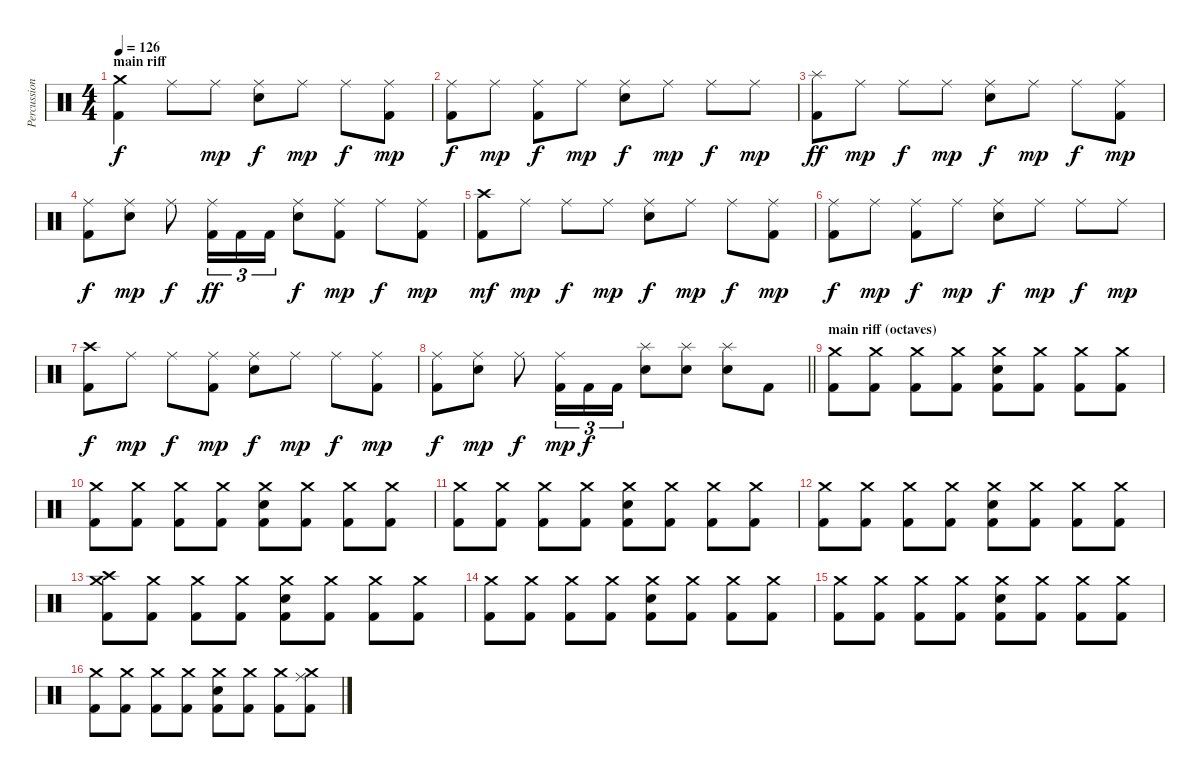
\track ("Percussion" "Percussion") {instrument percussion}
\staff {score}
\articulation defaults
\ts (4 4)
\section ("" "main riff")
\tempo 126
\clef neutral
\ks c
("Crash medium (hit)" "Kick (hit) 2").4{dy f} "Ride (middle)".8 "Ride (middle)".8{dy mp} ("Ride (middle)" "Electric Snare (hit)").8{dy f} "Ride (middle)".8{dy mp} "Ride (middle)".8{dy f} ("Ride (middle)" "Kick (hit) 2").8{dy mp} |
("Ride (middle)" "Kick (hit) 2").8{dy f} "Ride (middle)".8{dy mp} ("Ride (middle)" "Kick (hit) 2").8{dy f} "Ride (middle)".8{dy mp} ("Ride (middle)" "Electric Snare (hit)").8{dy f} "Ride (middle)".8{dy mp} "Ride (middle)".8{dy f} "Ride (middle)".8{dy mp} |
("Splash (hit)" "Kick (hit) 2").8{dy ff} "Ride (middle)".8{dy mp} "Ride (middle)".8{dy f} "Ride (middle)".8{dy mp} ("Ride (middle)" "Electric Snare (hit)").8{dy f} "Ride (middle)".8{dy mp} "Ride (middle)".8{dy f} ("Ride (middle)" "Kick (hit) 2").8{dy mp} |
("Ride (middle)" "Kick (hit) 2").8{dy f} ("Ride (middle)" "Electric Snare (hit)").8{dy mp} "Ride (middle)".8{dy f} ("Ride (middle)" "Kick (hit) 2").16{tu (3 2) dy ff} "Kick (hit) 2".16{tu (3 2)} "Kick (hit) 2".16{tu (3 2)} ("Ride (middle)" "Electric Snare (hit)").8{dy f} ("Ride (middle)" "Kick (hit) 2").8{dy mp} "Ride (middle)".8{dy f} ("Ride (middle)" "Kick (hit) 2").8{dy mp} |
("Crash high (hit)" "Kick (hit) 2").8{dy mf} "Ride (middle)".8{dy mp} "Ride (middle)".8{dy f} "Ride (middle)".8{dy mp} ("Ride (middle)" "Electric Snare (hit)").8{dy f} "Ride (middle)".8{dy mp} "Ride (middle)".8{dy f} ("Ride (middle)" "Kick (hit) 2").8{dy mp} |
("Ride (middle)" "Kick (hit) 2").8{dy f} "Ride (middle)".8{dy mp} ("Ride (middle)" "Kick (hit) 2").8{dy f} "Ride (middle)".8{dy mp} ("Ride (middle)" "Electric Snare (hit)").8{dy f} "Ride (middle)".8{dy mp} "Ride (middle)".8{dy f} "Ride (middle)".8{dy mp} |
("Crash high (hit)" "Kick (hit) 2").8{dy f} "Ride (middle)".8{dy mp} "Ride (middle)".8{dy f} ("Ride (middle)" "Kick (hit) 2").8{dy mp} ("Ride (middle)" "Electric Snare (hit)").8{dy f} "Ride (middle)".8{dy mp} "Ride (middle)".8{dy f} ("Ride (middle)" "Kick (hit) 2").8{dy mp} |
\barLineRight lightlight
("Ride (middle)" "Kick (hit) 2").8{dy f} ("Ride (middle)" "Electric Snare (hit)").8{dy mp} "Ride (middle)".8{dy f} ("Ride (middle)" "Kick (hit) 2").16{tu (3 2) dy mp} "Kick (hit) 2".16{tu (3 2) dy f} "Kick (hit) 2".16{tu (3 2)} ("Splash (hit)" "Electric Snare (hit)").8 ("Splash (hit)" "Electric Snare (hit)").8 ("Splash (hit)" "Electric Snare (hit)").8 "Kick (hit) 2".8 |
\section ("" "main riff (octaves)")
("Crash medium (hit)" "Kick (hit) 2").8 ("Crash medium (hit)" "Kick (hit) 2").8 ("Crash medium (hit)" "Kick (hit) 2").8 ("Crash medium (hit)" "Kick (hit) 2").8 ("Crash medium (hit)" "Electric Snare (hit)" "Kick (hit) 2").8 ("Crash medium (hit)" "Kick (hit) 2").8 ("Crash medium (hit)" "Kick (hit) 2").8 ("Crash medium (hit)" "Kick (hit) 2").8 |
("Crash medium (hit)" "Kick (hit) 2").8 ("Crash medium (hit)" "Kick (hit) 2").8 ("Crash medium (hit)" "Kick (hit) 2").8 ("Crash medium (hit)" "Kick (hit) 2").8 ("Crash medium (hit)" "Electric Snare (hit)" "Kick (hit) 2").8 ("Crash medium (hit)" "Kick (hit) 2").8 ("Crash medium (hit)" "Kick (hit) 2").8 ("Crash medium (hit)" "Kick (hit) 2").8 |
("Crash medium (hit)" "Kick (hit) 2").8 ("Crash medium (hit)" "Kick (hit) 2").8 ("Crash medium (hit)" "Kick (hit) 2").8 ("Crash medium (hit)" "Kick (hit) 2").8 ("Crash medium (hit)" "Electric Snare (hit)" "Kick (hit) 2").8 ("Crash medium (hit)" "Kick (hit) 2").8 ("Crash medium (hit)" "Kick (hit) 2").8 ("Crash medium (hit)" "Kick (hit) 2").8 |
("Crash medium (hit)" "Kick (hit) 2").8 ("Crash medium (hit)" "Kick (hit) 2").8 ("Crash medium (hit)" "Kick (hit) 2").8 ("Crash medium (hit)" "Kick (hit) 2").8 ("Crash medium (hit)" "Electric Snare (hit)" "Kick (hit) 2").8 ("Crash medium (hit)" "Kick (hit) 2").8 ("Crash medium (hit)" "Kick (hit) 2").8 ("Crash medium (hit)" "Kick (hit) 2").8 |
("Crash medium (hit)" "Crash high (hit)" "Kick (hit) 2").8 ("Crash medium (hit)" "Kick (hit) 2").8 ("Crash medium (hit)" "Kick (hit) 2").8 ("Crash medium (hit)" "Kick (hit) 2").8 ("Crash medium (hit)" "Electric Snare (hit)" "Kick (hit) 2").8 ("Crash medium (hit)" "Kick (hit) 2").8 ("Crash medium (hit)" "Kick (hit) 2").8 ("Crash medium (hit)" "Kick (hit) 2").8 |
("Crash medium (hit)" "Kick (hit) 2").8 ("Crash medium (hit)" "Kick (hit) 2").8 ("Crash medium (hit)" "Kick (hit) 2").8 ("Crash medium (hit)" "Kick (hit) 2").8 ("Crash medium (hit)" "Electric Snare (hit)" "Kick (hit) 2").8 ("Crash medium (hit)" "Kick (hit) 2").8 ("Crash medium (hit)" "Kick (hit) 2").8 ("Crash medium (hit)" "Kick (hit) 2").8 |
("Crash medium (hit)" "Kick (hit) 2").8 ("Crash medium (hit)" "Kick (hit) 2").8 ("Crash medium (hit)" "Kick (hit) 2").8 ("Crash medium (hit)" "Kick (hit) 2").8 ("Crash medium (hit)" "Electric Snare (hit)" "Kick (hit) 2").8 ("Crash medium (hit)" "Kick (hit) 2").8 ("Crash medium (hit)" "Kick (hit) 2").8 ("Crash medium (hit)" "Kick (hit) 2").8 |
("Crash medium (hit)" "Kick (hit) 2").8 ("Crash medium (hit)" "Kick (hit) 2").8 ("Crash medium (hit)" "Kick (hit) 2").8 ("Crash medium (hit)" "Kick (hit) 2").8 ("Crash medium (hit)" "Electric Snare (hit)" "Kick (hit) 2").8 ("Crash medium (hit)" "Kick (hit) 2").8 ("Crash medium (hit)" "Kick (hit) 2").8 ("Crash medium (hit)" "Ride (middle)" "Kick (hit) 2").8
